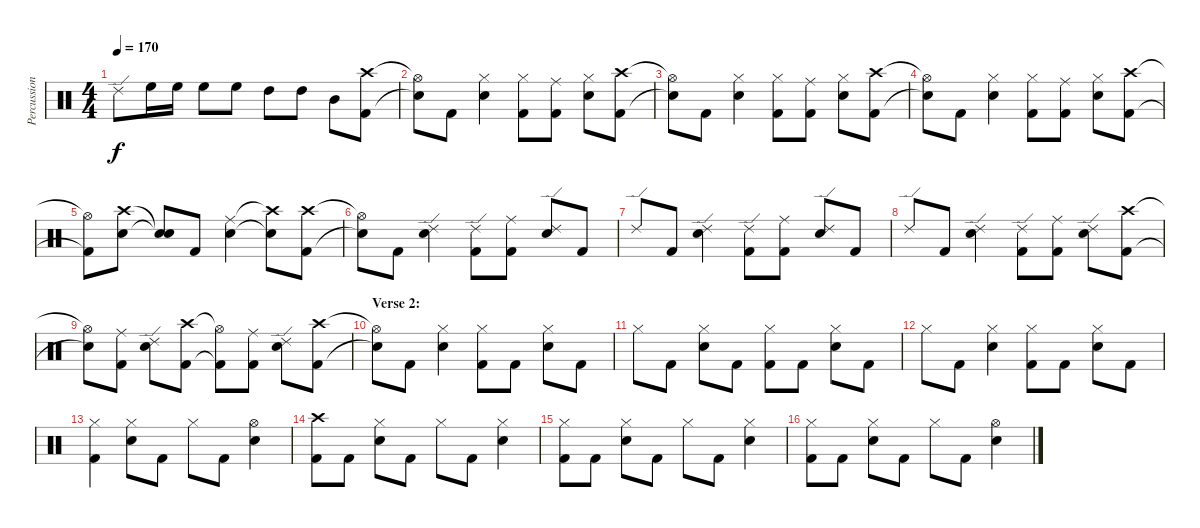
\track ("Percussion" "Percussion") {instrument percussion}
\staff {score}
\articulation defaults
\ts (4 4)
\tempo 170
\clef neutral
\ks c "Ride (edge) 2".8{dy f} "High Floor Tom (hit)".16 "High Floor Tom (hit)".16 "High Floor Tom (hit)".8 "High Floor Tom (hit)".8 "High Tom (hit)".8 "High Tom (hit)".8 "Mid Tom (hit)".8
("Crash high (hit)" "Kick (hit) 2").8 |
("Hi-Hat (open)"{t} "Snare (hit)"{t}).8 "Kick (hit) 2".8 ("Hi-Hat (closed)" "Snare (hit) 2").4 ("Hi-Hat (closed)" "Kick (hit) 2").8 ("Ride (middle)" "Kick (hit) 2").8 ("Hi-Hat (closed)" "Snare (hit) 2").8 ("Crash high (hit)" "Kick (hit) 2").8 |
("Hi-Hat (open)"{t} "Snare (hit)"{t}).8 "Kick (hit) 2".8 ("Hi-Hat (closed)" "Snare (hit) 2").4 ("Hi-Hat (closed)" "Kick (hit) 2").8 ("Ride (middle)" "Kick (hit) 2").8 ("Hi-Hat (closed)" "Snare (hit) 2").8 ("Crash high (hit)" "Kick (hit) 2").8 |
("Hi-Hat (open)"{t} "Snare (hit)"{t}).8 "Kick (hit) 2".8 ("Hi-Hat (closed)" "Snare (hit) 2").4 ("Hi-Hat (closed)" "Kick (hit) 2").8 ("Ride (middle)" "Kick (hit) 2").8 ("Hi-Hat (closed)" "Snare (hit) 2").8 ("Crash high (hit)" "Kick (hit) 2").8 |
("Hi-Hat (open)"{t} "Kick (hit) 2"{t}).8 ("Crash high (hit)" "Snare (hit) 2").8 ("Snare (hit)"{t} "Snare (hit)"{t}).8 "Kick (hit) 2".8 ("Ride (middle)" "Snare (hit) 2").4 ("Crash high (hit)"{t} "Snare (hit) 2"{t}).8 ("Crash high (hit)" "Kick (hit) 2").8 |
("Hi-Hat (open)"{t} "Snare (hit)"{t}).8 "Kick (hit) 2".8 ("Ride (edge) 2" "Snare (hit) 2").4 ("Ride (edge) 2" "Kick (hit) 2").8 ("Ride (middle)" "Kick (hit) 2").8 ("Ride (edge) 2" "Snare (hit) 2").8 "Kick (hit) 2".8 |
"Ride (edge) 2".8 "Kick (hit) 2".8 ("Ride (edge) 2" "Snare (hit) 2").4 ("Ride (edge) 2" "Kick (hit) 2").8 ("Ride (middle)" "Kick (hit) 2").8 ("Ride (edge) 2" "Snare (hit) 2").8 "Kick (hit) 2".8 |
"Ride (edge) 2".8 "Kick (hit) 2".8 ("Ride (edge) 2" "Snare (hit) 2").4 ("Ride (edge) 2" "Kick (hit) 2").8 ("Ride (middle)" "Kick (hit) 2").8 ("Ride (edge) 2" "Snare (hit) 2").8 ("Crash high (hit)" "Kick (hit) 2").8 |
("Hi-Hat (open)"{t} "Snare (hit)"{t}).8 ("Ride (middle)" "Kick (hit) 2").8 ("Ride (edge) 2" "Snare (hit) 2").8 ("Crash high (hit)" "Kick (hit) 2").8 ("Hi-Hat (open)"{t} "Kick (hit) 2"{t}).8 ("Ride (middle)" "Kick (hit) 2").8 ("Ride (edge) 2" "Snare (hit) 2").8 ("Crash high (hit)" "Kick (hit) 2").8 |
\section ("" "Verse 2:")
("Hi-Hat (open)"{t} "Snare (hit)"{t}).8 "Kick (hit) 2".8 ("Hi-Hat (closed)" "Snare (hit) 2").4 ("Hi-Hat (closed)" "Kick (hit) 2").8 "Kick (hit) 2".8 ("Hi-Hat (closed)" "Snare (hit) 2").8 "Kick (hit) 2".8 |
"Hi-Hat (closed)".8 "Kick (hit) 2".8 ("Hi-Hat (closed)" "Snare (hit) 2").8 "Kick (hit) 2".8 ("Hi-Hat (closed)" "Kick (hit) 2").8 "Kick (hit) 2".8 ("Hi-Hat (closed)" "Snare (hit) 2").8 "Kick (hit) 2".8 |
"Hi-Hat (closed)".8 "Kick (hit) 2".8 ("Hi-Hat (closed)" "Snare (hit) 2").4 ("Hi-Hat (closed)" "Kick (hit) 2").8 "Kick (hit) 2".8 ("Hi-Hat (closed)" "Snare (hit) 2").8 "Kick (hit) 2".8 |
("Hi-Hat (closed)" "Kick (hit) 2").4 ("Hi-Hat (closed)" "Snare (hit) 2").8 "Kick (hit) 2".8 "Hi-Hat (closed)".8 "Kick (hit) 2".8 ("Hi-Hat (open)" "Snare (hit) 2").4 |
("Crash high (hit)" "Kick (hit) 2").8 "Kick (hit) 2".8 ("Hi-Hat (closed)" "Snare (hit) 2").8 "Kick (hit) 2".8 "Hi-Hat (closed)".8 "Kick (hit) 2".8 ("Hi-Hat (closed)" "Snare (hit) 2").4 |
("Hi-Hat (closed)" "Kick (hit) 2").8 "Kick (hit) 2".8 ("Hi-Hat (closed)" "Snare (hit) 2").8 "Kick (hit) 2".8 "Hi-Hat (closed)".8 "Kick (hit) 2".8 ("Hi-Hat (closed)" "Snare (hit) 2").4 |
("Hi-Hat (closed)" "Kick (hit) 2").8 "Kick (hit) 2".8 ("Hi-Hat (closed)" "Snare (hit) 2").8 "Kick (hit) 2".8 "Hi-Hat (closed)".8 "Kick (hit) 2".8 ("Hi-Hat (open)" "Snare (hit) 2").4
